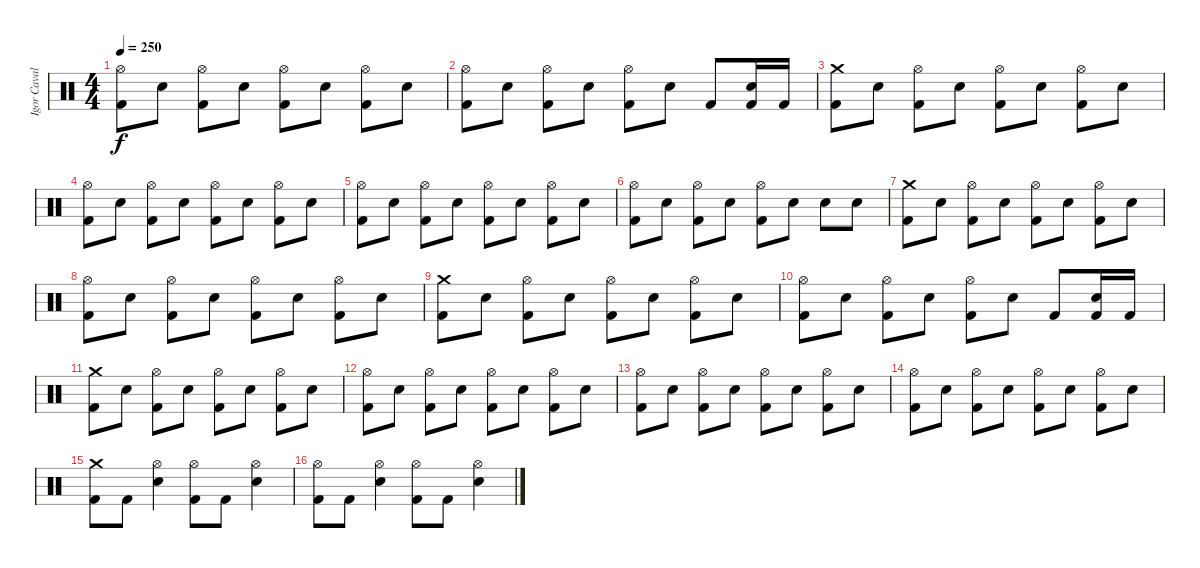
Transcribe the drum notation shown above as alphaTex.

\track ("Igor Cavalera" "Igor Caval") {instrument percussion}
\staff {score}
\articulation defaults
\ts (4 4)
\tempo 250
\clef neutral
\ks c
("Hi-Hat (open)" "Kick (hit) 2").8{dy f} "Electric Snare (hit)".8 ("Hi-Hat (open)" "Kick (hit) 2").8 "Electric Snare (hit)".8 ("Hi-Hat (open)" "Kick (hit) 2").8 "Electric Snare (hit)".8 ("Hi-Hat (open)" "Kick (hit) 2").8 "Electric Snare (hit)".8 |
("Hi-Hat (open)" "Kick (hit) 2").8 "Electric Snare (hit)".8 ("Hi-Hat (open)" "Kick (hit) 2").8 "Electric Snare (hit)".8 ("Hi-Hat (open)" "Kick (hit) 2").8 "Electric Snare (hit)".8 "Kick (hit) 2".8 ("Electric Snare (hit)" "Kick (hit) 2").16 "Kick (hit) 2".16 |
("Crash medium (hit)" "Kick (hit) 2").8 "Electric Snare (hit)".8 ("Hi-Hat (open)" "Kick (hit) 2").8 "Electric Snare (hit)".8 ("Hi-Hat (open)" "Kick (hit) 2").8 "Electric Snare (hit)".8 ("Hi-Hat (open)" "Kick (hit) 2").8 "Electric Snare (hit)".8 |
("Hi-Hat (open)" "Kick (hit) 2").8 "Electric Snare (hit)".8 ("Hi-Hat (open)" "Kick (hit) 2").8 "Electric Snare (hit)".8 ("Hi-Hat (open)" "Kick (hit) 2").8 "Electric Snare (hit)".8 ("Hi-Hat (open)" "Kick (hit) 2").8 "Electric Snare (hit)".8 |
("Hi-Hat (open)" "Kick (hit) 2").8 "Electric Snare (hit)".8 ("Hi-Hat (open)" "Kick (hit) 2").8 "Electric Snare (hit)".8 ("Hi-Hat (open)" "Kick (hit) 2").8 "Electric Snare (hit)".8 ("Hi-Hat (open)" "Kick (hit) 2").8 "Electric Snare (hit)".8 |
("Hi-Hat (open)" "Kick (hit) 2").8 "Electric Snare (hit)".8 ("Hi-Hat (open)" "Kick (hit) 2").8 "Electric Snare (hit)".8 ("Hi-Hat (open)" "Kick (hit) 2").8 "Electric Snare (hit)".8 "Electric Snare (hit)".8 "Electric Snare (hit)".8 |
("Crash medium (hit)" "Kick (hit) 2").8 "Electric Snare (hit)".8 ("Hi-Hat (open)" "Kick (hit) 2").8 "Electric Snare (hit)".8 ("Hi-Hat (open)" "Kick (hit) 2").8 "Electric Snare (hit)".8 ("Hi-Hat (open)" "Kick (hit) 2").8 "Electric Snare (hit)".8 |
("Hi-Hat (open)" "Kick (hit) 2").8 "Electric Snare (hit)".8 ("Hi-Hat (open)" "Kick (hit) 2").8 "Electric Snare (hit)".8 ("Hi-Hat (open)" "Kick (hit) 2").8 "Electric Snare (hit)".8 ("Hi-Hat (open)" "Kick (hit) 2").8 "Electric Snare (hit)".8 |
("Crash medium (hit)" "Kick (hit) 2").8 "Electric Snare (hit)".8 ("Hi-Hat (open)" "Kick (hit) 2").8 "Electric Snare (hit)".8 ("Hi-Hat (open)" "Kick (hit) 2").8 "Electric Snare (hit)".8 ("Hi-Hat (open)" "Kick (hit) 2").8 "Electric Snare (hit)".8 |
("Hi-Hat (open)" "Kick (hit) 2").8 "Electric Snare (hit)".8 ("Hi-Hat (open)" "Kick (hit) 2").8 "Electric Snare (hit)".8 ("Hi-Hat (open)" "Kick (hit) 2").8 "Electric Snare (hit)".8 "Kick (hit) 2".8 ("Kick (hit) 2" "Electric Snare (hit)").16 "Kick (hit) 2".16 |
("Crash medium (hit)" "Kick (hit) 2").8 "Electric Snare (hit)".8 ("Hi-Hat (open)" "Kick (hit) 2").8 "Electric Snare (hit)".8 ("Hi-Hat (open)" "Kick (hit) 2").8 "Electric Snare (hit)".8 ("Hi-Hat (open)" "Kick (hit) 2").8 "Electric Snare (hit)".8 |
("Hi-Hat (open)" "Kick (hit) 2").8 "Electric Snare (hit)".8 ("Hi-Hat (open)" "Kick (hit) 2").8 "Electric Snare (hit)".8 ("Hi-Hat (open)" "Kick (hit) 2").8 "Electric Snare (hit)".8 ("Hi-Hat (open)" "Kick (hit) 2").8 "Electric Snare (hit)".8 |
("Hi-Hat (open)" "Kick (hit) 2").8 "Electric Snare (hit)".8 ("Hi-Hat (open)" "Kick (hit) 2").8 "Electric Snare (hit)".8 ("Hi-Hat (open)" "Kick (hit) 2").8 "Electric Snare (hit)".8 ("Hi-Hat (open)" "Kick (hit) 2").8 "Electric Snare (hit)".8 |
("Hi-Hat (open)" "Kick (hit) 2").8 "Electric Snare (hit)".8 ("Hi-Hat (open)" "Kick (hit) 2").8 "Electric Snare (hit)".8 ("Hi-Hat (open)" "Kick (hit) 2").8 "Electric Snare (hit)".8 ("Hi-Hat (open)" "Kick (hit) 2").8 "Electric Snare (hit)".8 |
("Kick (hit) 2" "Crash medium (hit)").8 "Kick (hit) 2".8 ("Electric Snare (hit)" "Hi-Hat (open)").4 ("Kick (hit) 2" "Hi-Hat (open)").8 "Kick (hit) 2".8 ("Electric Snare (hit)" "Hi-Hat (open)").4 |
("Kick (hit) 2" "Hi-Hat (open)").8 "Kick (hit) 2".8 ("Electric Snare (hit)" "Hi-Hat (open)").4 ("Kick (hit) 2" "Hi-Hat (open)").8 "Kick (hit) 2".8 ("Electric Snare (hit)" "Hi-Hat (open)").4
